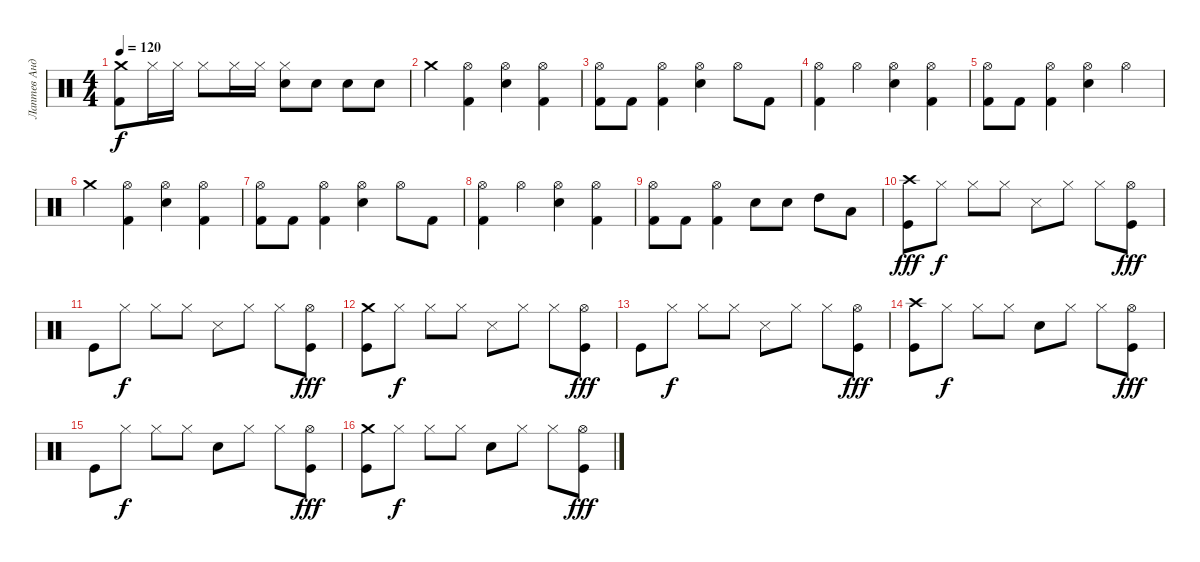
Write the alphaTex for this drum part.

\track ("Лаптев Андрей" "Лаптев Анд") {instrument percussion}
\staff {score}
\articulation defaults
\ts (4 4)
\tempo 120
\clef neutral
\ks c
("Crash medium (hit)" "Kick (hit) 2").8{dy f} "Hi-Hat (closed)".16 "Hi-Hat (closed)".16 "Hi-Hat (closed)".8 "Hi-Hat (closed)".16 "Hi-Hat (closed)".16 ("Hi-Hat (closed)" "Electric Snare (hit)").8 "Electric Snare (hit)".8 "Electric Snare (hit)".8 "Electric Snare (hit)".8 |
"Crash medium (hit)".4 ("Hi-Hat (open)" "Kick (hit) 2").4 ("Hi-Hat (open)" "Electric Snare (hit)").4 ("Hi-Hat (open)" "Kick (hit) 2").4 |
("Hi-Hat (open)" "Kick (hit) 2").8 "Kick (hit) 2".8 ("Hi-Hat (open)" "Kick (hit) 2").4 ("Hi-Hat (open)" "Electric Snare (hit)").4 "Hi-Hat (open)".8 "Kick (hit) 2".8 |
("Hi-Hat (open)" "Kick (hit) 2").4 "Hi-Hat (open)".4 ("Hi-Hat (open)" "Electric Snare (hit)").4 ("Hi-Hat (open)" "Kick (hit) 2").4 |
("Hi-Hat (open)" "Kick (hit) 2").8 "Kick (hit) 2".8 ("Hi-Hat (open)" "Kick (hit) 2").4 ("Hi-Hat (open)" "Electric Snare (hit)").4 "Hi-Hat (open)".4 |
"Crash medium (hit)".4 ("Hi-Hat (open)" "Kick (hit) 2").4 ("Hi-Hat (open)" "Electric Snare (hit)").4 ("Hi-Hat (open)" "Kick (hit) 2").4 |
("Hi-Hat (open)" "Kick (hit) 2").8 "Kick (hit) 2".8 ("Hi-Hat (open)" "Kick (hit) 2").4 ("Hi-Hat (open)" "Electric Snare (hit)").4 "Hi-Hat (open)".8 "Kick (hit) 2".8 |
("Hi-Hat (open)" "Kick (hit) 2").4 "Hi-Hat (open)".4 ("Hi-Hat (open)" "Electric Snare (hit)").4 ("Hi-Hat (open)" "Kick (hit) 2").4 |
("Hi-Hat (open)" "Kick (hit) 2").8 "Kick (hit) 2".8 ("Hi-Hat (open)" "Kick (hit) 2").4 "Electric Snare (hit)".8 "Electric Snare (hit)".8 "High Tom (hit)".8 "Low Tom (hit)".8 |
("Kick (hit)" "Crash high (hit)").8{dy fff} "Hi-Hat (closed)".8{dy f} "Hi-Hat (closed)".8 "Hi-Hat (closed)".8 "Snare (side stick) 3".8 "Hi-Hat (closed)".8 "Hi-Hat (closed)".8 ("Hi-Hat (open)" "Kick (hit)").8{dy fff} |
"Kick (hit)".8 "Hi-Hat (closed)".8{dy f} "Hi-Hat (closed)".8 "Hi-Hat (closed)".8 "Snare (side stick) 3".8 "Hi-Hat (closed)".8 "Hi-Hat (closed)".8 ("Kick (hit)" "Hi-Hat (open)").8{dy fff} |
("Kick (hit)" "Crash medium (hit)").8 "Hi-Hat (closed)".8{dy f} "Hi-Hat (closed)".8 "Hi-Hat (closed)".8 "Snare (side stick) 3".8 "Hi-Hat (closed)".8 "Hi-Hat (closed)".8 ("Kick (hit)" "Hi-Hat (open)").8{dy fff} |
"Kick (hit)".8 "Hi-Hat (closed)".8{dy f} "Hi-Hat (closed)".8 "Hi-Hat (closed)".8 "Snare (side stick) 3".8 "Hi-Hat (closed)".8 "Hi-Hat (closed)".8 ("Kick (hit)" "Hi-Hat (open)").8{dy fff} |
("Kick (hit)" "Crash high (hit)").8 "Hi-Hat (closed)".8{dy f} "Hi-Hat (closed)".8 "Hi-Hat (closed)".8 "Snare (hit) 2".8 "Hi-Hat (closed)".8 "Hi-Hat (closed)".8 ("Hi-Hat (open)" "Kick (hit)").8{dy fff} |
"Kick (hit)".8 "Hi-Hat (closed)".8{dy f} "Hi-Hat (closed)".8 "Hi-Hat (closed)".8 "Snare (hit) 2".8 "Hi-Hat (closed)".8 "Hi-Hat (closed)".8 ("Kick (hit)" "Hi-Hat (open)").8{dy fff} |
("Kick (hit)" "Crash medium (hit)").8 "Hi-Hat (closed)".8{dy f} "Hi-Hat (closed)".8 "Hi-Hat (closed)".8 "Snare (hit) 2".8 "Hi-Hat (closed)".8 "Hi-Hat (closed)".8 ("Kick (hit)" "Hi-Hat (open)").8{dy fff}
